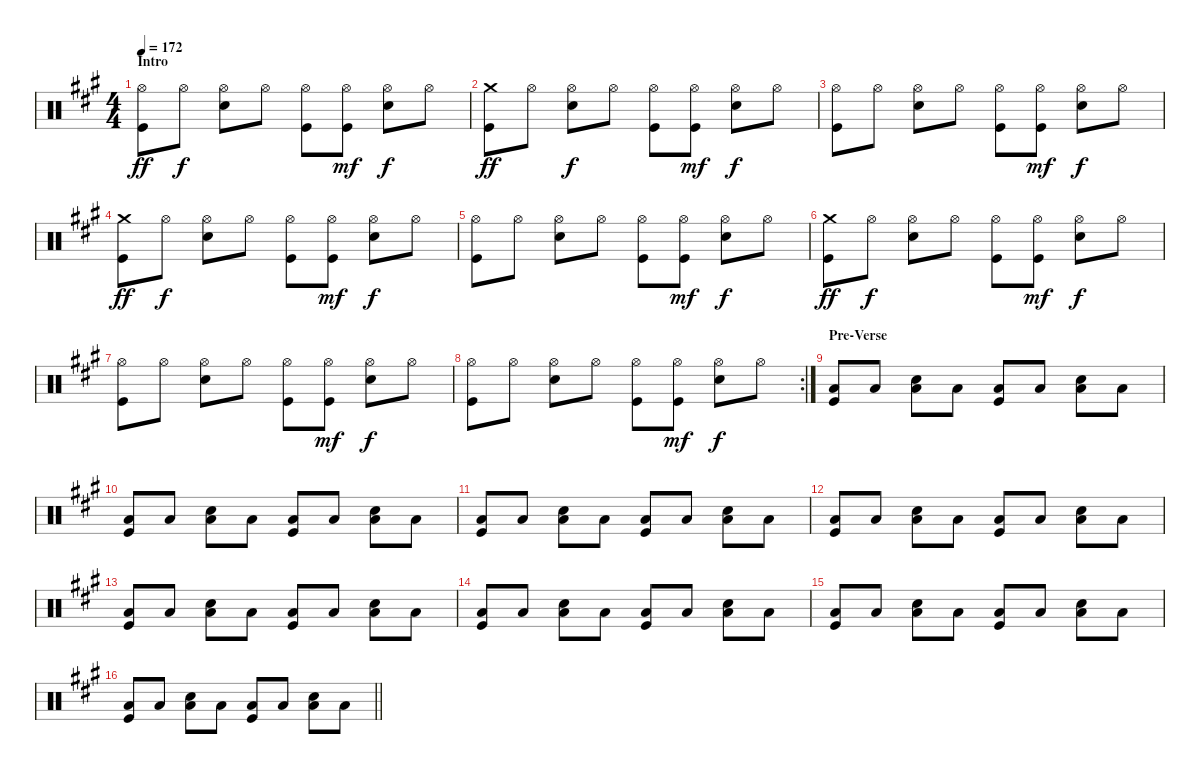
\bracketExtendMode nobrackets
\singleTrackTrackNamePolicy hidden
\multiTrackTrackNamePolicy hidden
\firstSystemTrackNameOrientation horizontal
\otherSystemsTrackNameOrientation horizontal
\track ("Drumkit" "Drumkit") {instrument percussion}
\staff {score}
\articulation defaults
\ts (4 4)
\beaming (8 2 2 2 2)
\section ("" "Intro")
\tempo 172
\clef neutral
\ks a
("Kick (hit)" "Hi-Hat (open)").8{dy ff} "Hi-Hat (open)".8{dy f} ("Hi-Hat (open)" "Snare (hit) 2").8 "Hi-Hat (open)".8 ("Hi-Hat (open)" "Kick (hit)").8 ("Hi-Hat (open)" "Kick (hit)").8{dy mf} ("Hi-Hat (open)" "Snare (hit) 2").8{dy f} "Hi-Hat (open)".8 |
("Kick (hit)" "Crash medium (hit)").8{dy ff} "Hi-Hat (open)".8 ("Hi-Hat (open)" "Snare (hit) 2").8{dy f} "Hi-Hat (open)".8 ("Hi-Hat (open)" "Kick (hit)").8 ("Hi-Hat (open)" "Kick (hit)").8{dy mf} ("Hi-Hat (open)" "Snare (hit) 2").8{dy f} "Hi-Hat (open)".8 |
("Kick (hit)" "Hi-Hat (open)").8 "Hi-Hat (open)".8 ("Hi-Hat (open)" "Snare (hit) 2").8 "Hi-Hat (open)".8 ("Hi-Hat (open)" "Kick (hit)").8 ("Hi-Hat (open)" "Kick (hit)").8{dy mf} ("Hi-Hat (open)" "Snare (hit) 2").8{dy f} "Hi-Hat (open)".8 |
("Kick (hit)" "Crash medium (hit)").8{dy ff} "Hi-Hat (open)".8{dy f} ("Hi-Hat (open)" "Snare (hit) 2").8 "Hi-Hat (open)".8 ("Hi-Hat (open)" "Kick (hit)").8 ("Hi-Hat (open)" "Kick (hit)").8{dy mf} ("Hi-Hat (open)" "Snare (hit) 2").8{dy f} "Hi-Hat (open)".8 |
("Kick (hit)" "Hi-Hat (open)").8 "Hi-Hat (open)".8 ("Hi-Hat (open)" "Snare (hit) 2").8 "Hi-Hat (open)".8 ("Hi-Hat (open)" "Kick (hit)").8 ("Hi-Hat (open)" "Kick (hit)").8{dy mf} ("Hi-Hat (open)" "Snare (hit) 2").8{dy f} "Hi-Hat (open)".8 |
("Kick (hit)" "Crash medium (hit)").8{dy ff} "Hi-Hat (open)".8{dy f} ("Hi-Hat (open)" "Snare (hit) 2").8 "Hi-Hat (open)".8 ("Hi-Hat (open)" "Kick (hit)").8 ("Hi-Hat (open)" "Kick (hit)").8{dy mf} ("Hi-Hat (open)" "Snare (hit) 2").8{dy f} "Hi-Hat (open)".8 |
("Kick (hit)" "Hi-Hat (open)").8 "Hi-Hat (open)".8 ("Hi-Hat (open)" "Snare (hit) 2").8 "Hi-Hat (open)".8 ("Hi-Hat (open)" "Kick (hit)").8 ("Hi-Hat (open)" "Kick (hit)").8{dy mf} ("Hi-Hat (open)" "Snare (hit) 2").8{dy f} "Hi-Hat (open)".8 |
\rc 2
("Kick (hit)" "Hi-Hat (open)").8 "Hi-Hat (open)".8 ("Hi-Hat (open)" "Snare (hit) 2").8 "Hi-Hat (open)".8 ("Hi-Hat (open)" "Kick (hit)").8 ("Hi-Hat (open)" "Kick (hit)").8{dy mf} ("Hi-Hat (open)" "Snare (hit) 2").8{dy f} "Hi-Hat (open)".8 |
\section ("" "Pre-Verse")
("Low Tom (hit)" "Kick (hit)").8 "Low Tom (hit)".8 ("Snare (hit) 2" "Low Tom (hit)").8 "Low Tom (hit)".8 ("Low Tom (hit)" "Kick (hit)").8 "Low Tom (hit)".8 ("Snare (hit) 2" "Low Tom (hit)").8 "Low Tom (hit)".8 |
("Low Tom (hit)" "Kick (hit)").8 "Low Tom (hit)".8 ("Snare (hit) 2" "Low Tom (hit)").8 "Low Tom (hit)".8 ("Low Tom (hit)" "Kick (hit)").8 "Low Tom (hit)".8 ("Snare (hit) 2" "Low Tom (hit)").8 "Low Tom (hit)".8 |
("Low Tom (hit)" "Kick (hit)").8 "Low Tom (hit)".8 ("Snare (hit) 2" "Low Tom (hit)").8 "Low Tom (hit)".8 ("Low Tom (hit)" "Kick (hit)").8 "Low Tom (hit)".8 ("Snare (hit) 2" "Low Tom (hit)").8 "Low Tom (hit)".8 |
("Low Tom (hit)" "Kick (hit)").8 "Low Tom (hit)".8 ("Snare (hit) 2" "Low Tom (hit)").8 "Low Tom (hit)".8 ("Low Tom (hit)" "Kick (hit)").8 "Low Tom (hit)".8 ("Snare (hit) 2" "Low Tom (hit)").8 "Low Tom (hit)".8 |
("Low Tom (hit)" "Kick (hit)").8 "Low Tom (hit)".8 ("Snare (hit) 2" "Low Tom (hit)").8 "Low Tom (hit)".8 ("Low Tom (hit)" "Kick (hit)").8 "Low Tom (hit)".8 ("Snare (hit) 2" "Low Tom (hit)").8 "Low Tom (hit)".8 |
("Low Tom (hit)" "Kick (hit)").8 "Low Tom (hit)".8 ("Snare (hit) 2" "Low Tom (hit)").8 "Low Tom (hit)".8 ("Low Tom (hit)" "Kick (hit)").8 "Low Tom (hit)".8 ("Snare (hit) 2" "Low Tom (hit)").8 "Low Tom (hit)".8 |
("Low Tom (hit)" "Kick (hit)").8 "Low Tom (hit)".8 ("Snare (hit) 2" "Low Tom (hit)").8 "Low Tom (hit)".8 ("Low Tom (hit)" "Kick (hit)").8 "Low Tom (hit)".8 ("Snare (hit) 2" "Low Tom (hit)").8 "Low Tom (hit)".8 |
\barLineRight lightlight
("Low Tom (hit)" "Kick (hit)").8 "Low Tom (hit)".8 ("Snare (hit) 2" "Low Tom (hit)").8 "Low Tom (hit)".8 ("Low Tom (hit)" "Kick (hit)").8 "Low Tom (hit)".8 ("Snare (hit) 2" "Low Tom (hit)").8 "Low Tom (hit)".8
